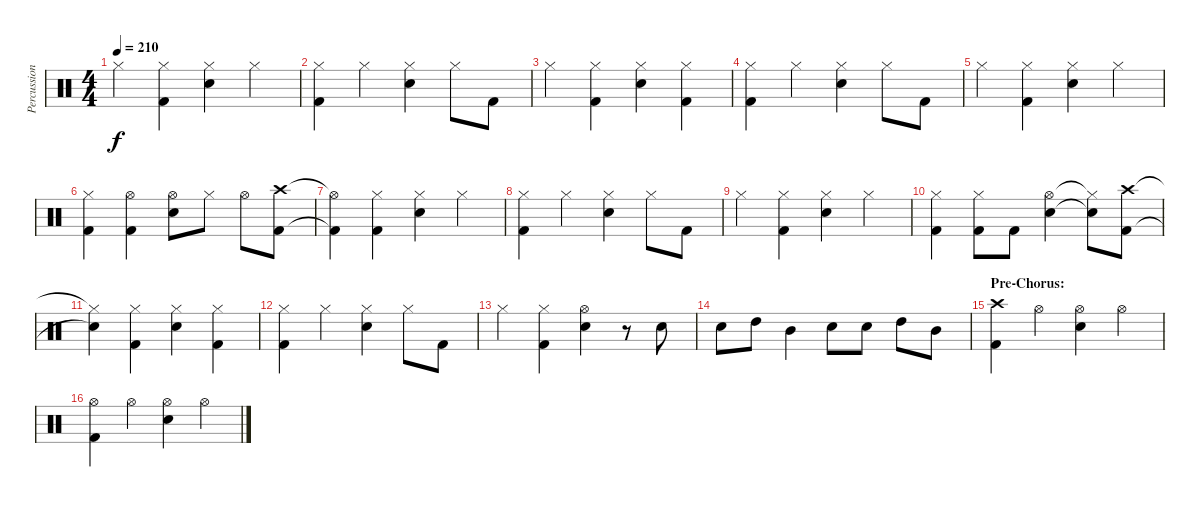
\track ("Percussion" "Percussion") {instrument percussion}
\staff {score}
\articulation defaults
\ts (4 4)
\tempo 210
\clef neutral
\ks c "Hi-Hat (closed)".4{dy f}
("Hi-Hat (closed)" "Kick (hit) 2").4 ("Hi-Hat (closed)" "Snare (hit) 2").4 "Hi-Hat (closed)".4 |
("Hi-Hat (closed)" "Kick (hit) 2").4 "Hi-Hat (closed)".4 ("Hi-Hat (closed)" "Snare (hit) 2").4 "Hi-Hat (closed)".8 "Kick (hit) 2".8 |
"Hi-Hat (closed)".4 ("Hi-Hat (closed)" "Kick (hit) 2").4 ("Hi-Hat (closed)" "Snare (hit) 2").4 ("Hi-Hat (closed)" "Kick (hit) 2").4 |
("Hi-Hat (closed)" "Kick (hit) 2").4 "Hi-Hat (closed)".4 ("Hi-Hat (closed)" "Snare (hit) 2").4 "Hi-Hat (closed)".8 "Kick (hit) 2".8 |
"Hi-Hat (closed)".4 ("Hi-Hat (closed)" "Kick (hit) 2").4 ("Hi-Hat (closed)" "Snare (hit) 2").4 "Hi-Hat (closed)".4 |
("Hi-Hat (closed)" "Kick (hit) 2").4 ("Hi-Hat (open)" "Kick (hit) 2").4 ("Hi-Hat (open)" "Snare (hit) 2").8 "Hi-Hat (closed)".8 "Hi-Hat (open)".8 ("Crash high (hit)" "Kick (hit) 2").8 |
("Hi-Hat (open)"{t} "Kick (hit) 2"{t}).4 ("Hi-Hat (closed)" "Kick (hit) 2").4 ("Hi-Hat (closed)" "Snare (hit) 2").4 "Hi-Hat (closed)".4 |
("Hi-Hat (closed)" "Kick (hit) 2").4 "Hi-Hat (closed)".4 ("Hi-Hat (closed)" "Snare (hit) 2").4 "Hi-Hat (closed)".8 "Kick (hit) 2".8 |
"Hi-Hat (closed)".4 ("Hi-Hat (closed)" "Kick (hit) 2").4 ("Hi-Hat (closed)" "Snare (hit) 2").4 "Hi-Hat (closed)".4 |
("Hi-Hat (closed)" "Kick (hit) 2").4 ("Hi-Hat (closed)" "Kick (hit) 2").8 "Kick (hit) 2".8 ("Hi-Hat (open)" "Snare (hit) 2").4 ("Hi-Hat (closed)"{t} "Snare (hit)"{t}).8 ("Crash high (hit)" "Kick (hit) 2").8 |
("Hi-Hat (closed)"{t} "Snare (hit)"{t}).4 ("Hi-Hat (closed)" "Kick (hit) 2").4 ("Hi-Hat (closed)" "Snare (hit) 2").4 ("Hi-Hat (closed)" "Kick (hit) 2").4 |
("Hi-Hat (closed)" "Kick (hit) 2").4 "Hi-Hat (closed)".4 ("Hi-Hat (closed)" "Snare (hit) 2").4 "Hi-Hat (closed)".8 "Kick (hit) 2".8 |
"Hi-Hat (closed)".4 ("Hi-Hat (closed)" "Kick (hit) 2").4 ("Hi-Hat (open)" "Snare (hit) 2").4 r.8 "Snare (hit) 2".8 |
"Snare (hit) 2".8 "High Tom (hit)".8 "Mid Tom (hit)".4 "Snare (hit) 2".8 "Snare (hit) 2".8 "High Tom (hit)".8 "Mid Tom (hit)".8 |
\section ("" "Pre-Chorus:")
("Crash high (hit)" "Kick (hit) 2").4 "Hi-Hat (open)".4 ("Hi-Hat (open)" "Snare (hit) 2").4 "Hi-Hat (open)".4 |
("Hi-Hat (open)" "Kick (hit) 2").4 "Hi-Hat (open)".4 ("Hi-Hat (open)" "Snare (hit) 2").4 "Hi-Hat (open)".4
